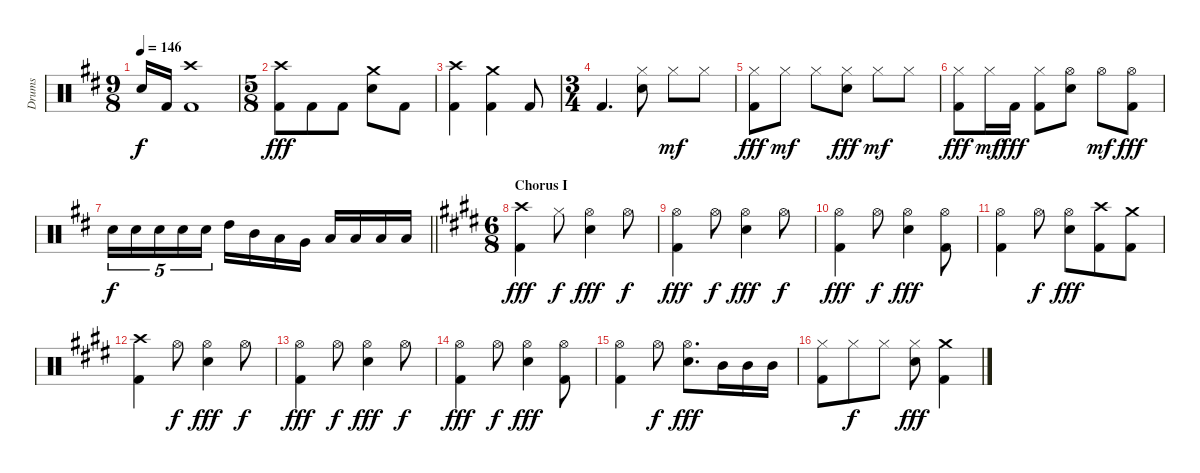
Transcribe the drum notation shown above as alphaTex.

\track ("Drums" "Drums") {instrument percussion}
\staff {score}
\articulation defaults
\ts (9 8)
\tempo 146
\clef neutral
\ks d "Snare (hit) 2".16{dy f} "Kick (hit) 2".16
("Crash high (hit)" "Kick (hit) 2").1 |
\ts (5 8)
("Crash high (hit)" "Kick (hit) 2").8{dy fff} "Kick (hit) 2".8 "Kick (hit) 2".8 ("Crash medium (hit)" "Snare (hit) 2").8 "Kick (hit) 2".8 |
("Crash high (hit)" "Kick (hit) 2").4 ("Crash medium (hit)" "Kick (hit) 2").4 "Kick (hit) 2".8 |
\ts (3 4)
"Kick (hit) 2".4{d} ("Hi-Hat (closed)" "Snare (hit) 2").8 "Hi-Hat (closed)".8{dy mf} "Hi-Hat (closed)".8 |
("Hi-Hat (closed)" "Kick (hit) 2").8{dy fff} "Hi-Hat (closed)".8{dy mf} "Hi-Hat (closed)".8 ("Hi-Hat (closed)" "Snare (hit) 2").8{dy fff} "Hi-Hat (closed)".8{dy mf} "Hi-Hat (closed)".8 |
("Hi-Hat (closed)" "Kick (hit) 2").8{dy fff} "Hi-Hat (closed)".16{dy mf} "Kick (hit) 2".16{dy fff} ("Hi-Hat (closed)" "Kick (hit) 2").8 ("Hi-Hat (open)" "Snare (hit) 2").8 "Hi-Hat (open)".8{dy mf} ("Hi-Hat (open)" "Kick (hit) 2").8{dy fff} |
\barLineRight lightlight "Snare (hit) 2".16{tu (5 4) dy f} "Snare (hit) 2".16{tu (5 4)} "Snare (hit) 2".16{tu (5 4)} "Snare (hit) 2".16{tu (5 4)} "Snare (hit) 2".16{tu (5 4)} "High Tom (hit)".16 "Mid Tom (hit)".16 "Low Tom (hit)".16 "Very Low Tom (hit)".16 "Low Floor Tom (hit)".16 "Low Floor Tom (hit)".16 "Low Floor Tom (hit)".16 "Low Floor Tom (hit)".16
|
\ts (6 8)
\section ("" "Chorus I")
\ks e
("Crash high (hit)" "Kick (hit) 2").4{dy fff} "Hi-Hat (closed)".8{dy f} ("Hi-Hat (open)" "Snare (hit) 2").4{dy fff} "Hi-Hat (open)".8{dy f} |
("Hi-Hat (open)" "Kick (hit) 2").4{dy fff} "Hi-Hat (open)".8{dy f} ("Hi-Hat (open)" "Snare (hit) 2").4{dy fff} "Hi-Hat (open)".8{dy f} |
("Hi-Hat (open)" "Kick (hit) 2").4{dy fff} "Hi-Hat (open)".8{dy f} ("Hi-Hat (open)" "Snare (hit) 2").4{dy fff} ("Hi-Hat (open)" "Kick (hit) 2").8 |
("Hi-Hat (open)" "Kick (hit) 2").4 "Hi-Hat (open)".8{dy f} ("Hi-Hat (open)" "Snare (hit) 2").8{dy fff} ("Crash high (hit)" "Kick (hit) 2").8 ("Crash medium (hit)" "Kick (hit) 2").8 |
("Crash high (hit)" "Kick (hit) 2").4 "Hi-Hat (open)".8{dy f} ("Hi-Hat (open)" "Snare (hit) 2").4{dy fff} "Hi-Hat (open)".8{dy f} |
("Hi-Hat (open)" "Kick (hit) 2").4{dy fff} "Hi-Hat (open)".8{dy f} ("Hi-Hat (open)" "Snare (hit) 2").4{dy fff} "Hi-Hat (open)".8{dy f} |
("Hi-Hat (open)" "Kick (hit) 2").4{dy fff} "Hi-Hat (open)".8{dy f} ("Hi-Hat (open)" "Snare (hit) 2").4{dy fff} ("Hi-Hat (open)" "Kick (hit) 2").8 |
("Hi-Hat (open)" "Kick (hit) 2").4 "Hi-Hat (open)".8{dy f} ("Hi-Hat (open)" "Snare (hit) 2").8{d dy fff} "Mid Tom (hit)".16 "Mid Tom (hit)".16 "Mid Tom (hit)".16 |
("Hi-Hat (closed)" "Kick (hit) 2").8 "Hi-Hat (closed)".8{dy f} "Hi-Hat (closed)".8 ("Hi-Hat (closed)" "Snare (hit) 2").8{dy fff} ("Crash medium (hit)" "Kick (hit) 2").4
